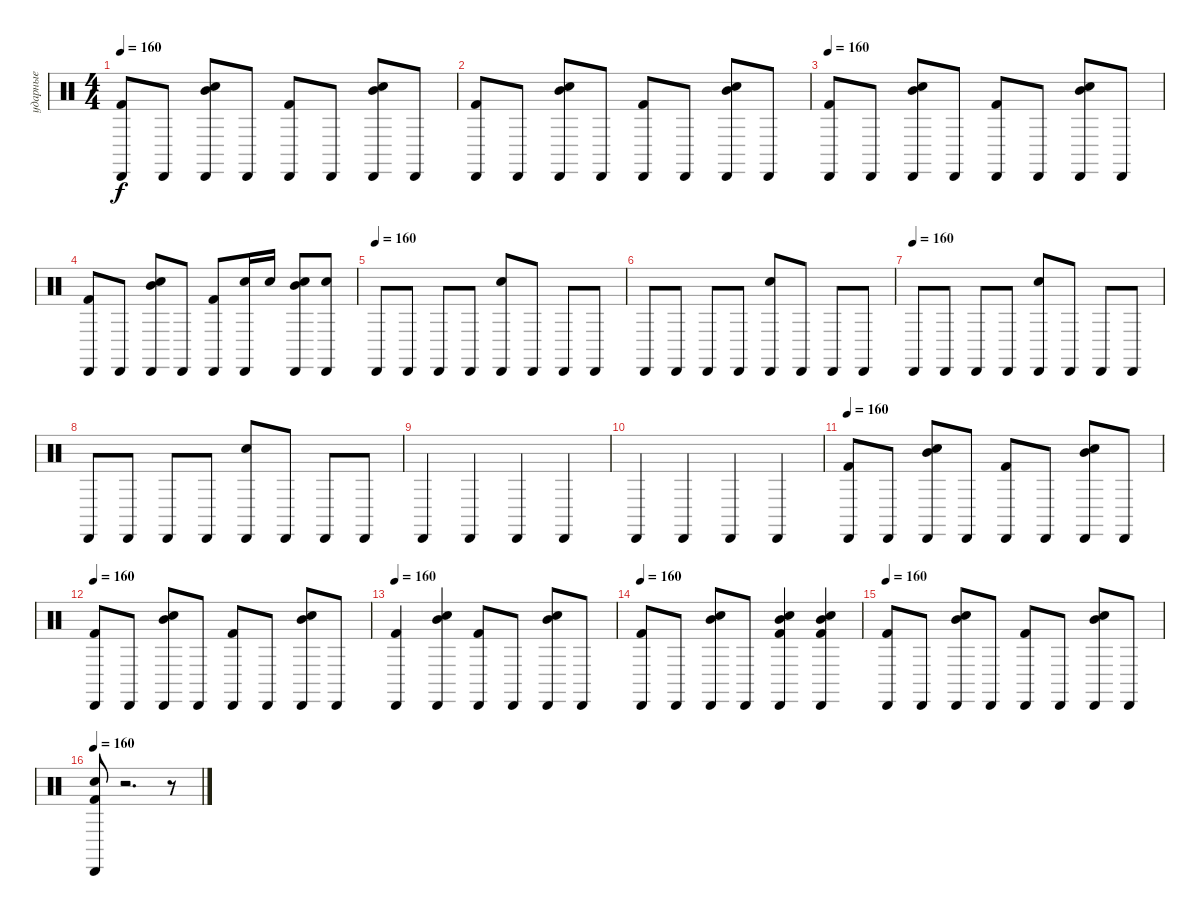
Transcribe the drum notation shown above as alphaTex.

\track ("ударные" "ударные") {instrument percussion}
\staff {score}
\articulation defaults
\ts (4 4)
\tempo 160
\clef neutral
\ks c
("Kick (hit) 2" "Cabasa (hit)").8{dy f} "Cabasa (hit)".8 ("Electric Snare (hit)" "Mid Tom (hit)" "Cabasa (hit)").8 "Cabasa (hit)".8 ("Cabasa (hit)" "Kick (hit) 2").8 "Cabasa (hit)".8 ("Cabasa (hit)" "Electric Snare (hit)" "Mid Tom (hit)").8 "Cabasa (hit)".8 |
("Cabasa (hit)" "Kick (hit) 2").8 "Cabasa (hit)".8 ("Electric Snare (hit)" "Cabasa (hit)" "Mid Tom (hit)").8 "Cabasa (hit)".8 ("Cabasa (hit)" "Kick (hit) 2").8 "Cabasa (hit)".8 ("Mid Tom (hit)" "Electric Snare (hit)" "Cabasa (hit)").8 "Cabasa (hit)".8 |
\tempo 160
("Kick (hit) 2" "Cabasa (hit)").8 "Cabasa (hit)".8 ("Electric Snare (hit)" "Mid Tom (hit)" "Cabasa (hit)").8 "Cabasa (hit)".8 ("Cabasa (hit)" "Kick (hit) 2").8 "Cabasa (hit)".8 ("Cabasa (hit)" "Electric Snare (hit)" "Mid Tom (hit)").8 "Cabasa (hit)".8 |
("Cabasa (hit)" "Kick (hit) 2").8 "Cabasa (hit)".8 ("Electric Snare (hit)" "Cabasa (hit)" "Mid Tom (hit)").8 "Cabasa (hit)".8 ("Cabasa (hit)" "Kick (hit) 2").8 ("Electric Snare (hit)" "Cabasa (hit)").16 "Electric Snare (hit)".16 ("Electric Snare (hit)" "Mid Tom (hit)" "Cabasa (hit)").8 ("Electric Snare (hit)" "Cabasa (hit)").8 |
\tempo (160)
"Cabasa (hit)".8 "Cabasa (hit)".8 "Cabasa (hit)".8 "Cabasa (hit)".8 ("Electric Snare (hit)" "Cabasa (hit)").8 "Cabasa (hit)".8 "Cabasa (hit)".8 "Cabasa (hit)".8 |
"Cabasa (hit)".8 "Cabasa (hit)".8 "Cabasa (hit)".8 "Cabasa (hit)".8 ("Electric Snare (hit)" "Cabasa (hit)").8 "Cabasa (hit)".8 "Cabasa (hit)".8 "Cabasa (hit)".8 |
\tempo (160)
"Cabasa (hit)".8 "Cabasa (hit)".8 "Cabasa (hit)".8 "Cabasa (hit)".8 ("Electric Snare (hit)" "Cabasa (hit)").8 "Cabasa (hit)".8 "Cabasa (hit)".8 "Cabasa (hit)".8 |
"Cabasa (hit)".8 "Cabasa (hit)".8 "Cabasa (hit)".8 "Cabasa (hit)".8 ("Electric Snare (hit)" "Cabasa (hit)").8 "Cabasa (hit)".8 "Cabasa (hit)".8 "Cabasa (hit)".8 |
"Cabasa (hit)".4 "Cabasa (hit)".4 "Cabasa (hit)".4 "Cabasa (hit)".4 |
"Cabasa (hit)".4 "Cabasa (hit)".4 "Cabasa (hit)".4 "Cabasa (hit)".4 |
\tempo 160
("Cabasa (hit)" "Kick (hit) 2").8 "Cabasa (hit)".8 ("Electric Snare (hit)" "Cabasa (hit)" "Mid Tom (hit)").8 "Cabasa (hit)".8 ("Cabasa (hit)" "Kick (hit) 2").8 "Cabasa (hit)".8 ("Mid Tom (hit)" "Electric Snare (hit)" "Cabasa (hit)").8 "Cabasa (hit)".8 |
\tempo 160
("Kick (hit) 2" "Cabasa (hit)").8 "Cabasa (hit)".8 ("Electric Snare (hit)" "Mid Tom (hit)" "Cabasa (hit)").8 "Cabasa (hit)".8 ("Cabasa (hit)" "Kick (hit) 2").8 "Cabasa (hit)".8 ("Cabasa (hit)" "Electric Snare (hit)" "Mid Tom (hit)").8 "Cabasa (hit)".8 |
\tempo 160
("Cabasa (hit)" "Kick (hit) 2").4 ("Electric Snare (hit)" "Cabasa (hit)" "Mid Tom (hit)").4 ("Cabasa (hit)" "Kick (hit) 2").8 "Cabasa (hit)".8 ("Mid Tom (hit)" "Electric Snare (hit)" "Cabasa (hit)").8 "Cabasa (hit)".8 |
\tempo 160
("Kick (hit) 2" "Cabasa (hit)").8 "Cabasa (hit)".8 ("Electric Snare (hit)" "Mid Tom (hit)" "Cabasa (hit)").8 "Cabasa (hit)".8 ("Mid Tom (hit)" "Electric Snare (hit)" "Cabasa (hit)" "Kick (hit) 2").4 ("Kick (hit) 2" "Cabasa (hit)" "Electric Snare (hit)" "Mid Tom (hit)").4 |
\tempo 160
("Cabasa (hit)" "Kick (hit) 2").8 "Cabasa (hit)".8 ("Electric Snare (hit)" "Cabasa (hit)" "Mid Tom (hit)").8 "Cabasa (hit)".8 ("Cabasa (hit)" "Kick (hit) 2").8 "Cabasa (hit)".8 ("Mid Tom (hit)" "Electric Snare (hit)" "Cabasa (hit)").8 "Cabasa (hit)".8 |
\tempo 160
("Kick (hit) 2" "Electric Snare (hit)" "Cabasa (hit)").8 r.2{d} r.8
